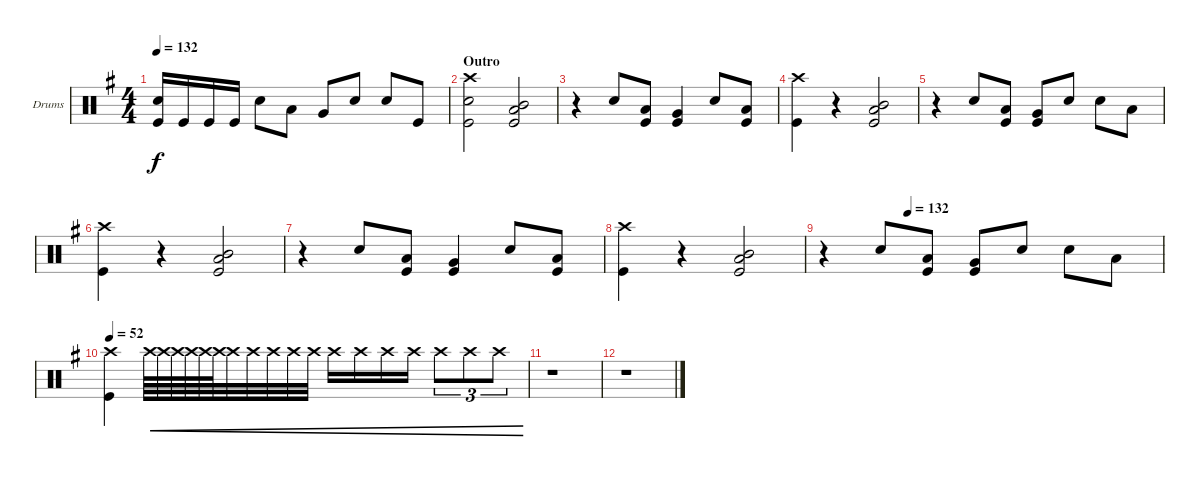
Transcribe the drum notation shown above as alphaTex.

\bracketExtendMode groupsimilarinstruments
\firstSystemTrackNameOrientation horizontal
\otherSystemsTrackNameOrientation horizontal
\track ("Drumkit" "Drums") {instrument percussion}
\staff {score}
\articulation defaults
\ts (4 4)
\tempo 132
\clef neutral
\ks g
("Snare (hit) 2" "Kick (hit)").16{dy f} "Kick (hit)".16 "Kick (hit)".16 "Kick (hit)".16 "Snare (hit) 2".8 "Low Tom (hit)".8 "Very Low Tom (hit)".8 "Snare (hit) 2".8 "Snare (hit) 2".8 "Kick (hit)".8 |
\section ("" "Outro")
("Crash high (hit)" "Snare (hit) 2" "Kick (hit)").2 ("Mid Tom (hit)" "Low Tom (hit)" "Kick (hit)").2 |
r.4 "Snare (hit) 2".8 ("Low Tom (hit)" "Kick (hit)").8 ("Very Low Tom (hit)" "Kick (hit)").4 "Snare (hit) 2".8 ("Low Tom (hit)" "Kick (hit)").8 |
("Crash high (hit)" "Kick (hit)").4 r.4 ("Mid Tom (hit)" "Low Tom (hit)" "Kick (hit)").2 |
r.4 "Snare (hit) 2".8 ("Low Tom (hit)" "Kick (hit)").8 ("Very Low Tom (hit)" "Kick (hit)").8 "Snare (hit) 2".8 "Snare (hit) 2".8 "Low Tom (hit)".8 |
("Crash high (hit)" "Kick (hit)").4 r.4 ("Mid Tom (hit)" "Low Tom (hit)" "Kick (hit)").2 |
r.4 "Snare (hit) 2".8 ("Low Tom (hit)" "Kick (hit)").8 ("Very Low Tom (hit)" "Kick (hit)").4 "Snare (hit) 2".8 ("Low Tom (hit)" "Kick (hit)").8 |
("Crash high (hit)" "Kick (hit)").4 r.4 ("Mid Tom (hit)" "Low Tom (hit)" "Kick (hit)").2 |
\tempo (132 0.25)
r.4 "Snare (hit) 2".8 ("Low Tom (hit)" "Kick (hit)").8 ("Very Low Tom (hit)" "Kick (hit)").8 "Snare (hit) 2".8 "Snare (hit) 2".8 "Low Tom (hit)".8 |
\tempo 52
("Crash high (hit)" "Kick (hit)").4 "Crash high (hit)".64{cre} "Crash high (hit)".64{cre} "Crash high (hit)".64{cre} "Crash high (hit)".64{cre} "Crash high (hit)".64{cre} "Crash high (hit)".64{cre} "Crash high (hit)".32{cre} "Crash high (hit)".32{cre} "Crash high (hit)".32{cre} "Crash high (hit)".32{cre} "Crash high (hit)".32{cre} "Crash high (hit)".16{cre} "Crash high (hit)".16{cre} "Crash high (hit)".16{cre} "Crash high (hit)".16{cre} "Crash high (hit)".8{tu (3 2) cre} "Crash high (hit)".8{tu (3 2) cre} "Crash high (hit)".8{tu (3 2) cre} |
r.1 |
r.1
